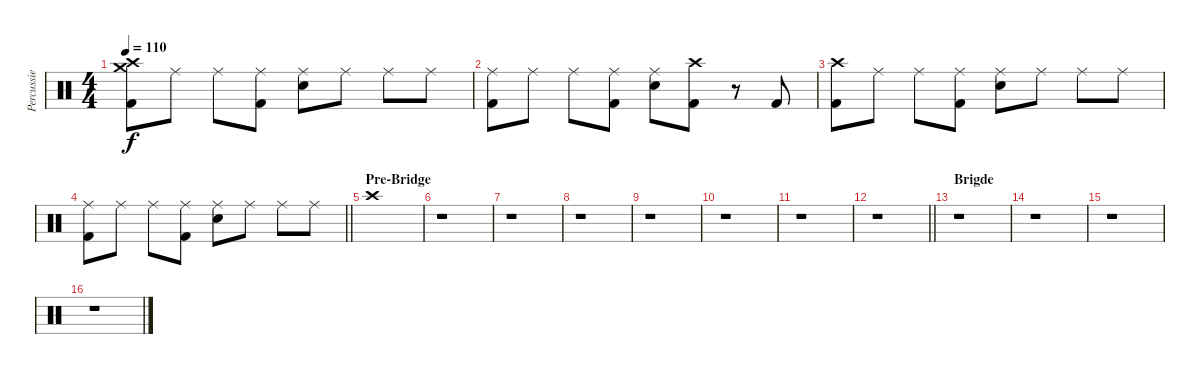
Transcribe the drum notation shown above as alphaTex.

\track ("Percussie" "Percussie") {instrument percussion}
\staff {score}
\articulation defaults
\ts (4 4)
\tempo 110
\clef neutral
\ks c
("Crash high (hit)" "Crash medium (hit)" "Kick (hit) 2").8{dy f} "Ride (middle)".8 "Ride (middle)".8 ("Ride (middle)" "Kick (hit) 2").8 ("Ride (middle)" "Electric Snare (hit)").8 "Ride (middle)".8 "Ride (middle)".8 "Ride (middle)".8 |
("Ride (middle)" "Kick (hit) 2").8 "Ride (middle)".8 "Ride (middle)".8 ("Ride (middle)" "Kick (hit) 2").8 ("Ride (middle)" "Electric Snare (hit)").8 ("Crash high (hit)" "Kick (hit) 2").8 r.8 "Kick (hit) 2".8 |
("Crash high (hit)" "Kick (hit) 2").8 "Ride (middle)".8 "Ride (middle)".8 ("Ride (middle)" "Kick (hit) 2").8 ("Ride (middle)" "Electric Snare (hit)").8 "Ride (middle)".8 "Ride (middle)".8 "Ride (middle)".8 |
\barLineRight lightlight
("Ride (middle)" "Kick (hit) 2").8 "Ride (middle)".8 "Ride (middle)".8 ("Ride (middle)" "Kick (hit) 2").8 ("Ride (middle)" "Electric Snare (hit)").8 "Ride (middle)".8 "Ride (middle)".8 "Ride (middle)".8 |
\section ("" "Pre-Bridge")
"Crash high (hit)".1 |
r.1 |
r.1 |
r.1 |
r.1 |
r.1 |
r.1 |
\barLineRight lightlight
r.1 |
\section ("" "Brigde")
r.1 |
r.1 |
r.1 |
r.1
